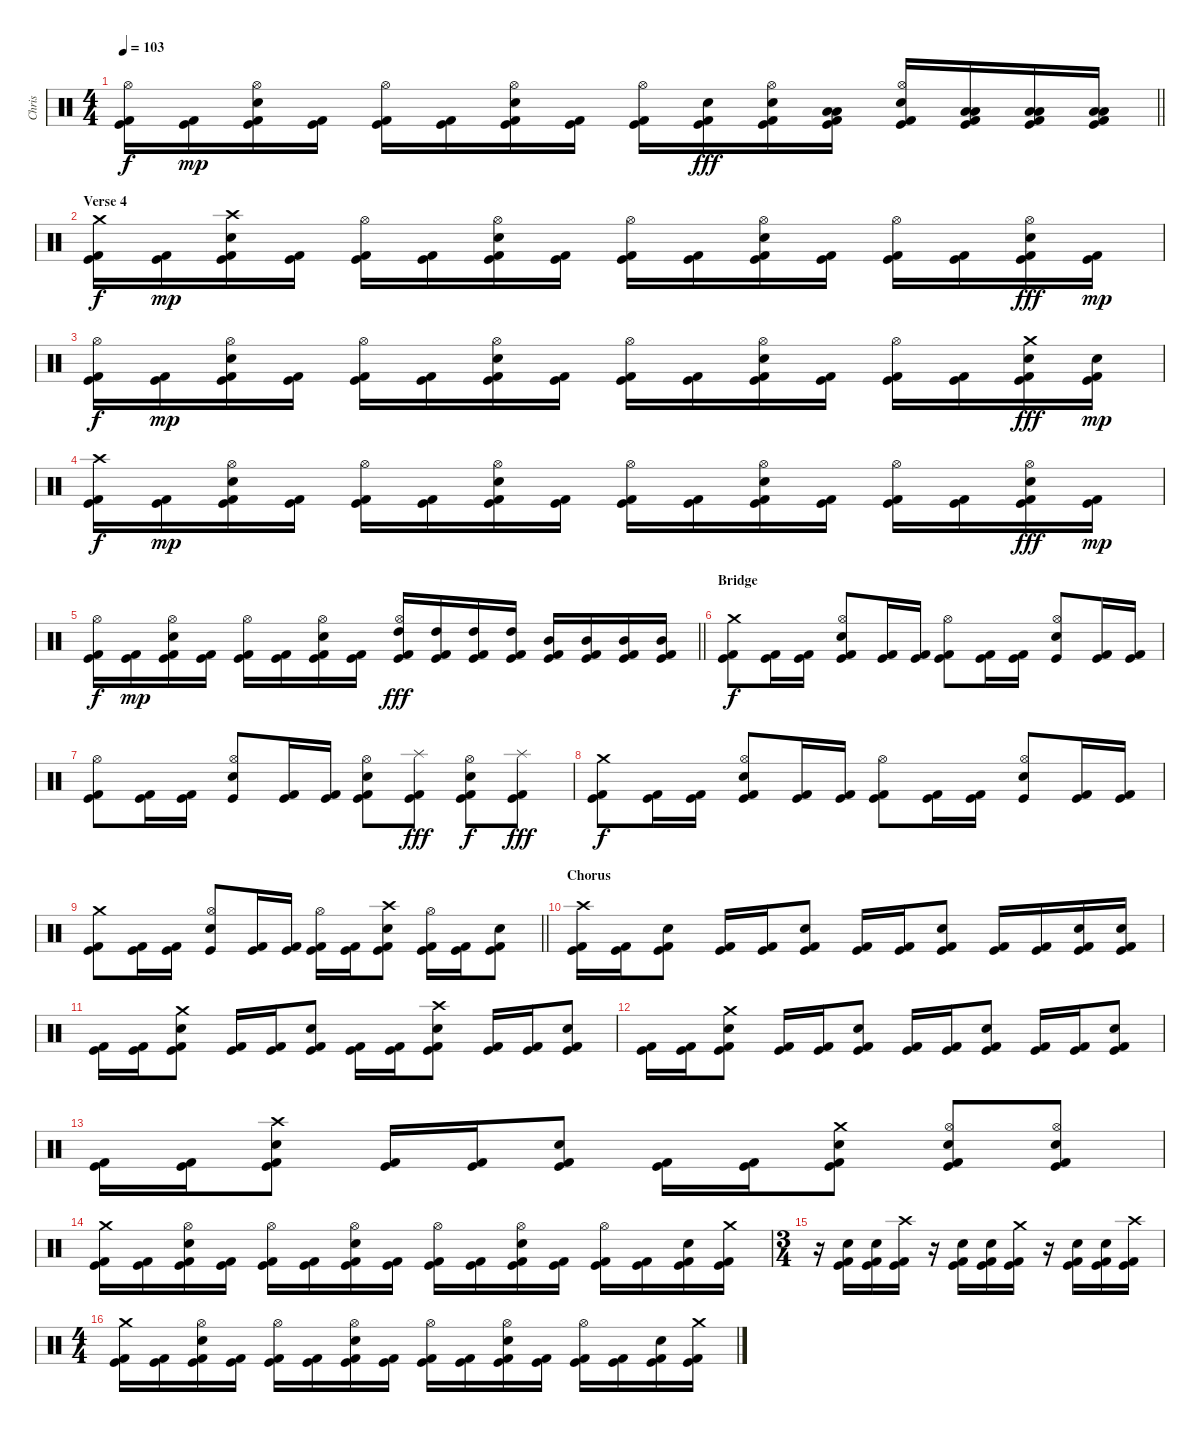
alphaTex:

\track ("Chris" "Chris") {instrument percussion}
\staff {score}
\articulation defaults
\ts (4 4)
\tempo 103
\clef neutral
\barLineRight lightlight
\ks c
("Kick (hit)" "Kick (hit) 2" "Hi-Hat (open)").16{dy f} ("Kick (hit)" "Kick (hit) 2").16{dy mp} ("Kick (hit)" "Kick (hit) 2" "Electric Snare (hit)" "Hi-Hat (open)").16 ("Kick (hit)" "Kick (hit) 2").16 ("Kick (hit)" "Kick (hit) 2" "Hi-Hat (open)").16 ("Kick (hit)" "Kick (hit) 2").16 ("Kick (hit)" "Kick (hit) 2" "Electric Snare (hit)" "Hi-Hat (open)").16 ("Kick (hit)" "Kick (hit) 2").16 ("Kick (hit)" "Kick (hit) 2" "Hi-Hat (open)").16 ("Kick (hit)" "Kick (hit) 2" "Electric Snare (hit)").16{dy fff} ("Kick (hit)" "Kick (hit) 2" "Electric Snare (hit)" "Hi-Hat (open)").16 ("Kick (hit)" "Kick (hit) 2" "Low Tom (hit)" "Low Tom (hit)").16 ("Kick (hit)" "Kick (hit) 2" "Electric Snare (hit)" "Hi-Hat (open)").16 ("Kick (hit)" "Kick (hit) 2" "Low Tom (hit)" "Low Tom (hit)").16 ("Kick (hit)" "Kick (hit) 2" "Low Tom (hit)" "Low Tom (hit)").16 ("Kick (hit)" "Kick (hit) 2" "Low Tom (hit)" "Low Tom (hit)").16 |
\section ("" "Verse 4")
("Kick (hit)" "Kick (hit) 2" "Crash medium (hit)").16{dy f} ("Kick (hit)" "Kick (hit) 2").16{dy mp} ("Kick (hit)" "Kick (hit) 2" "Electric Snare (hit)" "Crash high (hit)").16 ("Kick (hit)" "Kick (hit) 2").16 ("Kick (hit)" "Kick (hit) 2" "Hi-Hat (open)").16 ("Kick (hit)" "Kick (hit) 2").16 ("Kick (hit)" "Kick (hit) 2" "Electric Snare (hit)" "Hi-Hat (open)").16 ("Kick (hit)" "Kick (hit) 2").16 ("Kick (hit)" "Kick (hit) 2" "Hi-Hat (open)").16 ("Kick (hit)" "Kick (hit) 2").16 ("Kick (hit)" "Kick (hit) 2" "Electric Snare (hit)" "Hi-Hat (open)").16 ("Kick (hit)" "Kick (hit) 2").16 ("Kick (hit)" "Kick (hit) 2" "Hi-Hat (open)").16 ("Kick (hit)" "Kick (hit) 2").16 ("Kick (hit)" "Kick (hit) 2" "Electric Snare (hit)" "Hi-Hat (open)").16{dy fff} ("Kick (hit)" "Kick (hit) 2").16{dy mp} |
("Kick (hit)" "Kick (hit) 2" "Hi-Hat (open)").16{dy f} ("Kick (hit)" "Kick (hit) 2").16{dy mp} ("Kick (hit)" "Kick (hit) 2" "Electric Snare (hit)" "Hi-Hat (open)").16 ("Kick (hit)" "Kick (hit) 2").16 ("Kick (hit)" "Kick (hit) 2" "Hi-Hat (open)").16 ("Kick (hit)" "Kick (hit) 2").16 ("Kick (hit)" "Kick (hit) 2" "Electric Snare (hit)" "Hi-Hat (open)").16 ("Kick (hit)" "Kick (hit) 2").16 ("Kick (hit)" "Kick (hit) 2" "Hi-Hat (open)").16 ("Kick (hit)" "Kick (hit) 2").16 ("Kick (hit)" "Kick (hit) 2" "Electric Snare (hit)" "Hi-Hat (open)").16 ("Kick (hit)" "Kick (hit) 2").16 ("Kick (hit)" "Kick (hit) 2" "Hi-Hat (open)").16 ("Kick (hit)" "Kick (hit) 2").16 ("Kick (hit)" "Kick (hit) 2" "Electric Snare (hit)" "Crash medium (hit)").16{dy fff} ("Kick (hit)" "Kick (hit) 2" "Electric Snare (hit)").16{dy mp} |
("Kick (hit)" "Kick (hit) 2" "Crash high (hit)").16{dy f} ("Kick (hit)" "Kick (hit) 2").16{dy mp} ("Kick (hit)" "Kick (hit) 2" "Electric Snare (hit)" "Hi-Hat (open)").16 ("Kick (hit)" "Kick (hit) 2").16 ("Kick (hit)" "Kick (hit) 2" "Hi-Hat (open)").16 ("Kick (hit)" "Kick (hit) 2").16 ("Kick (hit)" "Kick (hit) 2" "Electric Snare (hit)" "Hi-Hat (open)").16 ("Kick (hit)" "Kick (hit) 2").16 ("Kick (hit)" "Kick (hit) 2" "Hi-Hat (open)").16 ("Kick (hit)" "Kick (hit) 2").16 ("Kick (hit)" "Kick (hit) 2" "Electric Snare (hit)" "Hi-Hat (open)").16 ("Kick (hit)" "Kick (hit) 2").16 ("Kick (hit)" "Kick (hit) 2" "Hi-Hat (open)").16 ("Kick (hit)" "Kick (hit) 2").16 ("Kick (hit)" "Kick (hit) 2" "Electric Snare (hit)" "Hi-Hat (open)").16{dy fff} ("Kick (hit)" "Kick (hit) 2").16{dy mp} |
\barLineRight lightlight
("Kick (hit)" "Kick (hit) 2" "Hi-Hat (open)").16{dy f} ("Kick (hit)" "Kick (hit) 2").16{dy mp} ("Kick (hit)" "Kick (hit) 2" "Electric Snare (hit)" "Hi-Hat (open)").16 ("Kick (hit)" "Kick (hit) 2").16 ("Kick (hit)" "Kick (hit) 2" "Hi-Hat (open)").16 ("Kick (hit)" "Kick (hit) 2").16 ("Kick (hit)" "Kick (hit) 2" "Electric Snare (hit)" "Hi-Hat (open)").16 ("Kick (hit)" "Kick (hit) 2").16 ("Kick (hit)" "Kick (hit) 2" "High Tom (hit)" "Hi-Hat (open)").16{dy fff} ("Kick (hit)" "Kick (hit) 2" "High Tom (hit)").16 ("Kick (hit)" "Kick (hit) 2" "High Tom (hit)").16 ("Kick (hit)" "Kick (hit) 2" "High Tom (hit)").16 ("Kick (hit)" "Kick (hit) 2" "Mid Tom (hit)").16 ("Kick (hit)" "Kick (hit) 2" "Mid Tom (hit)").16 ("Kick (hit)" "Kick (hit) 2" "Mid Tom (hit)").16 ("Kick (hit)" "Kick (hit) 2" "Mid Tom (hit)").16 |
\section ("" "Bridge")
("Kick (hit)" "Kick (hit) 2" "Crash medium (hit)").8{dy f} ("Kick (hit)" "Kick (hit) 2").16 ("Kick (hit)" "Kick (hit) 2").16 ("Kick (hit)" "Kick (hit) 2" "Electric Snare (hit)" "Hi-Hat (open)").8 ("Kick (hit)" "Kick (hit) 2").16 ("Kick (hit)" "Kick (hit) 2").16 ("Kick (hit)" "Kick (hit) 2" "Hi-Hat (open)").8 ("Kick (hit)" "Kick (hit) 2").16 ("Kick (hit)" "Kick (hit) 2").16 ("Kick (hit)" "Electric Snare (hit)" "Hi-Hat (open)").8 ("Kick (hit)" "Kick (hit) 2").16 ("Kick (hit)" "Kick (hit) 2").16 |
("Kick (hit)" "Kick (hit) 2" "Hi-Hat (open)").8 ("Kick (hit)" "Kick (hit) 2").16 ("Kick (hit)" "Kick (hit) 2").16 ("Kick (hit)" "Electric Snare (hit)" "Hi-Hat (open)").8 ("Kick (hit)" "Kick (hit) 2").16 ("Kick (hit)" "Kick (hit) 2").16 ("Kick (hit)" "Kick (hit) 2" "Electric Snare (hit)" "Hi-Hat (open)").8 ("Kick (hit)" "Kick (hit) 2" "Splash (hit)").8{dy fff} ("Kick (hit)" "Kick (hit) 2" "Electric Snare (hit)" "Hi-Hat (open)").8{dy f} ("Kick (hit)" "Kick (hit) 2" "Splash (hit)").8{dy fff} |
("Kick (hit)" "Kick (hit) 2" "Crash medium (hit)").8{dy f} ("Kick (hit)" "Kick (hit) 2").16 ("Kick (hit)" "Kick (hit) 2").16 ("Kick (hit)" "Kick (hit) 2" "Electric Snare (hit)" "Hi-Hat (open)").8 ("Kick (hit)" "Kick (hit) 2").16 ("Kick (hit)" "Kick (hit) 2").16 ("Kick (hit)" "Kick (hit) 2" "Hi-Hat (open)").8 ("Kick (hit)" "Kick (hit) 2").16 ("Kick (hit)" "Kick (hit) 2").16 ("Kick (hit)" "Electric Snare (hit)" "Hi-Hat (open)").8 ("Kick (hit)" "Kick (hit) 2").16 ("Kick (hit)" "Kick (hit) 2").16 |
\barLineRight lightlight
("Kick (hit)" "Kick (hit) 2" "Crash medium (hit)").8 ("Kick (hit)" "Kick (hit) 2").16 ("Kick (hit)" "Kick (hit) 2").16 ("Kick (hit)" "Electric Snare (hit)" "Hi-Hat (open)").8 ("Kick (hit)" "Kick (hit) 2").16 ("Kick (hit)" "Kick (hit) 2").16 ("Kick (hit)" "Kick (hit) 2" "Hi-Hat (open)").16 ("Kick (hit)" "Kick (hit) 2").16 ("Kick (hit)" "Kick (hit) 2" "Electric Snare (hit)" "Crash high (hit)").8 ("Kick (hit)" "Kick (hit) 2" "Hi-Hat (open)").16 ("Kick (hit)" "Kick (hit) 2").16 ("Kick (hit)" "Kick (hit) 2" "Electric Snare (hit)").8 |
\section ("" "Chorus")
("Kick (hit)" "Kick (hit) 2" "Crash high (hit)").16 ("Kick (hit)" "Kick (hit) 2").16 ("Kick (hit)" "Kick (hit) 2" "Electric Snare (hit)").8 ("Kick (hit)" "Kick (hit) 2").16 ("Kick (hit)" "Kick (hit) 2").16 ("Kick (hit)" "Kick (hit) 2" "Electric Snare (hit)").8 ("Kick (hit)" "Kick (hit) 2").16 ("Kick (hit)" "Kick (hit) 2").16 ("Kick (hit)" "Kick (hit) 2" "Electric Snare (hit)").8 ("Kick (hit)" "Kick (hit) 2").16 ("Kick (hit)" "Kick (hit) 2").16 ("Kick (hit)" "Kick (hit) 2" "Electric Snare (hit)").16 ("Kick (hit)" "Kick (hit) 2" "Electric Snare (hit)").16 |
("Kick (hit)" "Kick (hit) 2").16 ("Kick (hit)" "Kick (hit) 2").16 ("Kick (hit)" "Kick (hit) 2" "Electric Snare (hit)" "Crash medium (hit)").8 ("Kick (hit)" "Kick (hit) 2").16 ("Kick (hit)" "Kick (hit) 2").16 ("Kick (hit)" "Kick (hit) 2" "Electric Snare (hit)").8 ("Kick (hit)" "Kick (hit) 2").16 ("Kick (hit)" "Kick (hit) 2").16 ("Kick (hit)" "Kick (hit) 2" "Electric Snare (hit)" "Crash high (hit)").8 ("Kick (hit)" "Kick (hit) 2").16 ("Kick (hit)" "Kick (hit) 2").16 ("Kick (hit)" "Kick (hit) 2" "Electric Snare (hit)").8 |
("Kick (hit)" "Kick (hit) 2").16 ("Kick (hit)" "Kick (hit) 2").16 ("Kick (hit)" "Kick (hit) 2" "Electric Snare (hit)" "Crash medium (hit)").8 ("Kick (hit)" "Kick (hit) 2").16 ("Kick (hit)" "Kick (hit) 2").16 ("Kick (hit)" "Kick (hit) 2" "Electric Snare (hit)").8 ("Kick (hit)" "Kick (hit) 2").16 ("Kick (hit)" "Kick (hit) 2").16 ("Kick (hit)" "Kick (hit) 2" "Electric Snare (hit)").8 ("Kick (hit)" "Kick (hit) 2").16 ("Kick (hit)" "Kick (hit) 2").16 ("Kick (hit)" "Kick (hit) 2" "Electric Snare (hit)").8 |
("Kick (hit)" "Kick (hit) 2").16 ("Kick (hit)" "Kick (hit) 2").16 ("Kick (hit)" "Kick (hit) 2" "Electric Snare (hit)" "Crash high (hit)").8 ("Kick (hit)" "Kick (hit) 2").16 ("Kick (hit)" "Kick (hit) 2").16 ("Kick (hit)" "Kick (hit) 2" "Electric Snare (hit)").8 ("Kick (hit)" "Kick (hit) 2").16 ("Kick (hit)" "Kick (hit) 2").16 ("Kick (hit)" "Kick (hit) 2" "Electric Snare (hit)" "Crash medium (hit)").8 ("Kick (hit)" "Kick (hit) 2" "Electric Snare (hit)" "Hi-Hat (open)").8 ("Kick (hit)" "Kick (hit) 2" "Electric Snare (hit)" "Hi-Hat (open)").8 |
("Kick (hit)" "Kick (hit) 2" "Crash medium (hit)").16 ("Kick (hit)" "Kick (hit) 2").16 ("Kick (hit)" "Kick (hit) 2" "Electric Snare (hit)" "Hi-Hat (open)").16 ("Kick (hit)" "Kick (hit) 2").16 ("Kick (hit)" "Kick (hit) 2" "Hi-Hat (open)").16 ("Kick (hit)" "Kick (hit) 2").16 ("Kick (hit)" "Kick (hit) 2" "Electric Snare (hit)" "Hi-Hat (open)").16 ("Kick (hit)" "Kick (hit) 2").16 ("Kick (hit)" "Kick (hit) 2" "Hi-Hat (open)").16 ("Kick (hit)" "Kick (hit) 2").16 ("Kick (hit)" "Kick (hit) 2" "Electric Snare (hit)" "Hi-Hat (open)").16 ("Kick (hit)" "Kick (hit) 2").16 ("Kick (hit)" "Kick (hit) 2" "Hi-Hat (open)").16 ("Kick (hit)" "Kick (hit) 2").16 ("Kick (hit)" "Kick (hit) 2" "Electric Snare (hit)").16 ("Kick (hit)" "Kick (hit) 2" "Crash medium (hit)").16 |
\ts (3 4)
r.16 ("Kick (hit)" "Kick (hit) 2" "Electric Snare (hit)").16 ("Kick (hit)" "Kick (hit) 2" "Electric Snare (hit)").16 ("Kick (hit)" "Kick (hit) 2" "Crash high (hit)").16 r.16 ("Kick (hit)" "Kick (hit) 2" "Electric Snare (hit)").16 ("Kick (hit)" "Kick (hit) 2" "Electric Snare (hit)").16 ("Kick (hit)" "Kick (hit) 2" "Crash medium (hit)").16 r.16 ("Kick (hit)" "Kick (hit) 2" "Electric Snare (hit)").16 ("Kick (hit)" "Kick (hit) 2" "Electric Snare (hit)").16 ("Kick (hit)" "Kick (hit) 2" "Crash high (hit)").16 |
\ts (4 4)
("Kick (hit)" "Kick (hit) 2" "Crash medium (hit)").16 ("Kick (hit)" "Kick (hit) 2").16 ("Kick (hit)" "Kick (hit) 2" "Electric Snare (hit)" "Hi-Hat (open)").16 ("Kick (hit)" "Kick (hit) 2").16 ("Kick (hit)" "Kick (hit) 2" "Hi-Hat (open)").16 ("Kick (hit)" "Kick (hit) 2").16 ("Kick (hit)" "Kick (hit) 2" "Electric Snare (hit)" "Hi-Hat (open)").16 ("Kick (hit)" "Kick (hit) 2").16 ("Kick (hit)" "Kick (hit) 2" "Hi-Hat (open)").16 ("Kick (hit)" "Kick (hit) 2").16 ("Kick (hit)" "Kick (hit) 2" "Electric Snare (hit)" "Hi-Hat (open)").16 ("Kick (hit)" "Kick (hit) 2").16 ("Kick (hit)" "Kick (hit) 2" "Hi-Hat (open)").16 ("Kick (hit)" "Kick (hit) 2").16 ("Kick (hit)" "Kick (hit) 2" "Electric Snare (hit)").16 ("Kick (hit)" "Kick (hit) 2" "Crash medium (hit)").16
